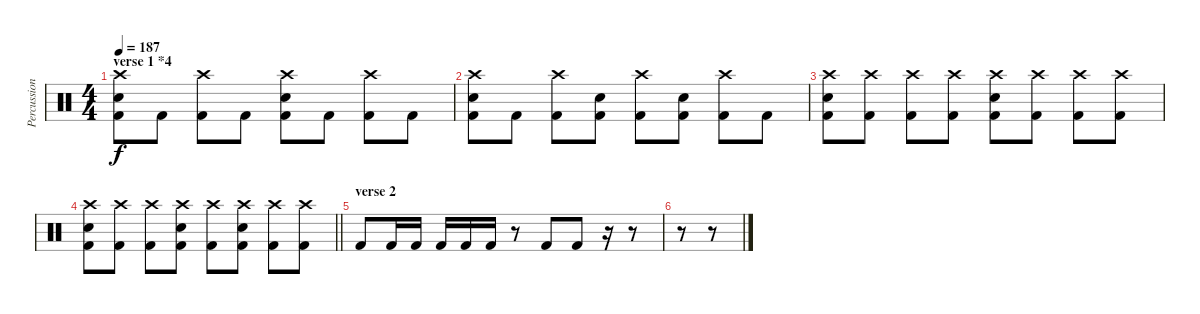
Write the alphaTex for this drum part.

\track ("Percussions" "Percussion") {instrument percussion}
\staff {score}
\articulation defaults
\ts (4 4)
\section ("" "verse 1 *4")
\tempo 187
\clef neutral
\ks c
("Crash high (hit)" "Electric Snare (hit)" "Kick (hit) 2").8{dy f} "Kick (hit) 2".8 ("Crash high (hit)" "Kick (hit) 2").8 "Kick (hit) 2".8 ("Crash high (hit)" "Electric Snare (hit)" "Kick (hit) 2").8 "Kick (hit) 2".8 ("Crash high (hit)" "Kick (hit) 2").8 "Kick (hit) 2".8 |
("Crash high (hit)" "Electric Snare (hit)" "Kick (hit) 2").8 "Kick (hit) 2".8 ("Crash high (hit)" "Kick (hit) 2").8 ("Electric Snare (hit)" "Kick (hit) 2").8 ("Crash high (hit)" "Kick (hit) 2").8 ("Electric Snare (hit)" "Kick (hit) 2").8 ("Crash high (hit)" "Kick (hit) 2").8 "Kick (hit) 2".8 |
("Crash high (hit)" "Electric Snare (hit)" "Kick (hit) 2").8 ("Crash high (hit)" "Kick (hit) 2").8 ("Crash high (hit)" "Kick (hit) 2").8 ("Crash high (hit)" "Kick (hit) 2").8 ("Crash high (hit)" "Electric Snare (hit)" "Kick (hit) 2").8 ("Crash high (hit)" "Kick (hit) 2").8 ("Crash high (hit)" "Kick (hit) 2").8 ("Crash high (hit)" "Kick (hit) 2").8 |
\barLineRight lightlight
("Crash high (hit)" "Electric Snare (hit)" "Kick (hit) 2").8 ("Crash high (hit)" "Kick (hit) 2").8 ("Crash high (hit)" "Kick (hit) 2").8 ("Crash high (hit)" "Electric Snare (hit)" "Kick (hit) 2").8 ("Crash high (hit)" "Kick (hit) 2").8 ("Crash high (hit)" "Electric Snare (hit)" "Kick (hit) 2").8 ("Crash high (hit)" "Kick (hit) 2").8 ("Crash high (hit)" "Kick (hit) 2").8 |
\section ("" "verse 2")
"Kick (hit) 2".8 "Kick (hit) 2".16 "Kick (hit) 2".16 "Kick (hit) 2".16 "Kick (hit) 2".16 "Kick (hit) 2".16 r.8 "Kick (hit) 2".8 "Kick (hit) 2".8 r.16 r.8 |
r.8 r.8
